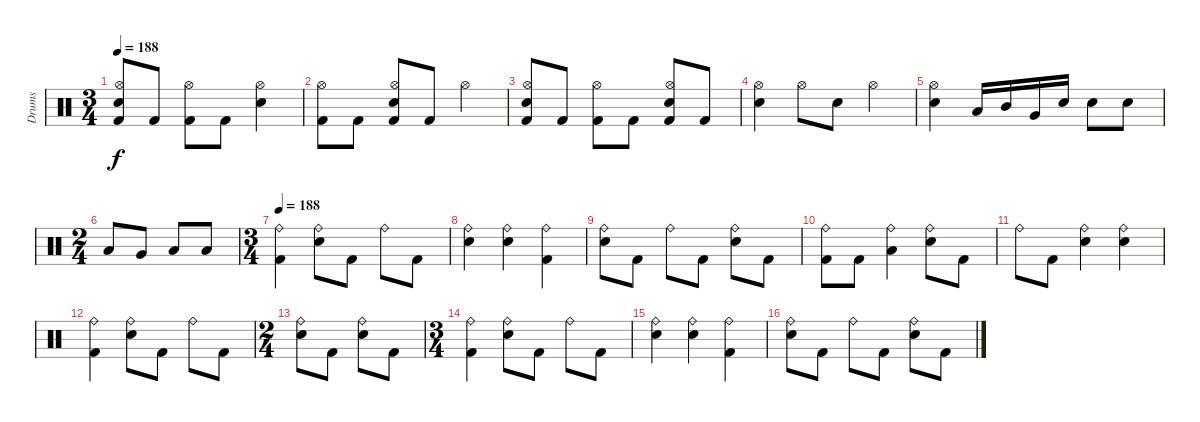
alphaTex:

\track ("Drums" "Drums") {instrument percussion}
\staff {score}
\articulation defaults
\ts (3 4)
\tempo 188
\clef neutral
\ks c
("Electric Snare (hit)" "Hi-Hat (open)" "Kick (hit) 2").8{dy f} "Kick (hit) 2".8 ("Hi-Hat (open)" "Kick (hit) 2").8 "Kick (hit) 2".8 ("Electric Snare (hit)" "Hi-Hat (open)").4 |
("Hi-Hat (open)" "Kick (hit) 2").8 "Kick (hit) 2".8 ("Electric Snare (hit)" "Hi-Hat (open)" "Kick (hit) 2").8 "Kick (hit) 2".8 "Hi-Hat (open)".4 |
("Electric Snare (hit)" "Hi-Hat (open)" "Kick (hit) 2").8 "Kick (hit) 2".8 ("Hi-Hat (open)" "Kick (hit) 2").8 "Kick (hit) 2".8 ("Electric Snare (hit)" "Hi-Hat (open)" "Kick (hit) 2").8 "Kick (hit) 2".8 |
("Electric Snare (hit)" "Hi-Hat (open)").4 "Hi-Hat (open)".8 "Electric Snare (hit)".8 "Hi-Hat (open)".4 |
("Electric Snare (hit)" "Hi-Hat (open)").4 "Low Tom (hit)".16 "Mid Tom (hit)".16 "Very Low Tom (hit)".16 "Electric Snare (hit)".16 "Electric Snare (hit)".8 "Electric Snare (hit)".8 |
\ts (2 4)
"Low Floor Tom (hit)".8 "Very Low Tom (hit)".8 "Low Tom (hit)".8 "Low Tom (hit)".8 |
\ts (3 4)
\tempo 188
("Ride (bell)" "Kick (hit) 2").4 ("Electric Snare (hit)" "Ride (bell)").8 "Kick (hit) 2".8 "Ride (bell)".8 "Kick (hit) 2".8 |
("Electric Snare (hit)" "Ride (bell)").4 ("Electric Snare (hit)" "Ride (bell)").4 ("Ride (bell)" "Kick (hit) 2").4 |
("Electric Snare (hit)" "Ride (bell)").8 "Kick (hit) 2".8 "Ride (bell)".8 "Kick (hit) 2".8 ("Electric Snare (hit)" "Ride (bell)").8 "Kick (hit) 2".8 |
("Ride (bell)" "Kick (hit) 2").8 "Kick (hit) 2".8 ("Ride (bell)" "Low Tom (hit)").4 ("Electric Snare (hit)" "Ride (bell)").8 "Kick (hit) 2".8 |
"Ride (bell)".8 "Kick (hit) 2".8 ("Electric Snare (hit)" "Ride (bell)").4 ("Electric Snare (hit)" "Ride (bell)").4 |
("Ride (bell)" "Kick (hit) 2").4 ("Electric Snare (hit)" "Ride (bell)").8 "Kick (hit) 2".8 "Ride (bell)".8 "Kick (hit) 2".8 |
\ts (2 4)
("Electric Snare (hit)" "Ride (bell)").8 "Kick (hit) 2".8 ("Electric Snare (hit)" "Ride (bell)").8 "Kick (hit) 2".8 |
\ts (3 4)
("Ride (bell)" "Kick (hit) 2").4 ("Electric Snare (hit)" "Ride (bell)").8 "Kick (hit) 2".8 "Ride (bell)".8 "Kick (hit) 2".8 |
("Electric Snare (hit)" "Ride (bell)").4 ("Electric Snare (hit)" "Ride (bell)").4 ("Ride (bell)" "Kick (hit) 2").4 |
("Electric Snare (hit)" "Ride (bell)").8 "Kick (hit) 2".8 "Ride (bell)".8 "Kick (hit) 2".8 ("Electric Snare (hit)" "Ride (bell)").8 "Kick (hit) 2".8
